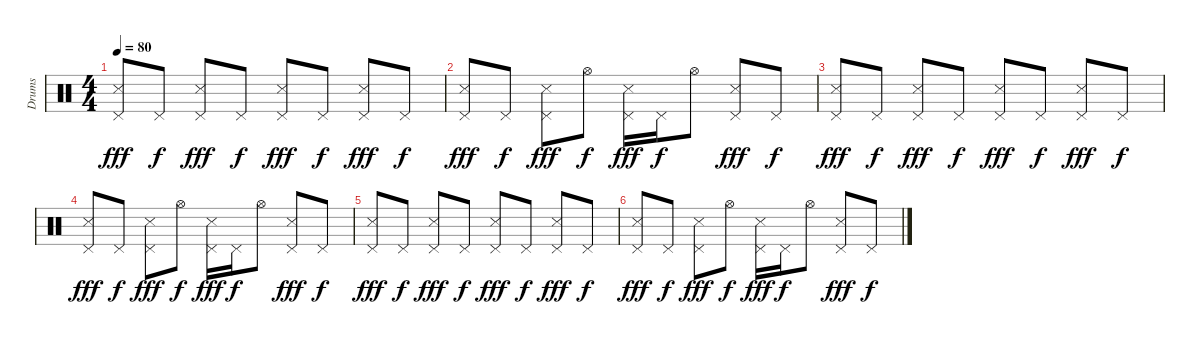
\track ("Drums" "Drums") {instrument percussion}
\staff {score}
\articulation defaults
\ts (4 4)
\tempo 80
\clef neutral
\ks c
("Snare (side stick) 3" "Pedal Hi-Hat (hit)").8{dy fff} "Pedal Hi-Hat (hit)".8{dy f} ("Snare (side stick) 3" "Pedal Hi-Hat (hit)").8{dy fff} "Pedal Hi-Hat (hit)".8{dy f} ("Snare (side stick) 3" "Pedal Hi-Hat (hit)").8{dy fff} "Pedal Hi-Hat (hit)".8{dy f} ("Snare (side stick) 3" "Pedal Hi-Hat (hit)").8{dy fff} "Pedal Hi-Hat (hit)".8{dy f} |
("Snare (side stick) 3" "Pedal Hi-Hat (hit)").8{dy fff} "Pedal Hi-Hat (hit)".8{dy f} ("Snare (side stick) 3" "Pedal Hi-Hat (hit)").8{dy fff} "Hi-Hat (open)".8{dy f} ("Snare (side stick) 3" "Pedal Hi-Hat (hit)").16{dy fff} "Pedal Hi-Hat (hit)".16{dy f} "Hi-Hat (open)".8 ("Snare (side stick) 3" "Pedal Hi-Hat (hit)").8{dy fff} "Pedal Hi-Hat (hit)".8{dy f} |
("Snare (side stick) 3" "Pedal Hi-Hat (hit)").8{dy fff} "Pedal Hi-Hat (hit)".8{dy f} ("Snare (side stick) 3" "Pedal Hi-Hat (hit)").8{dy fff} "Pedal Hi-Hat (hit)".8{dy f} ("Snare (side stick) 3" "Pedal Hi-Hat (hit)").8{dy fff} "Pedal Hi-Hat (hit)".8{dy f} ("Snare (side stick) 3" "Pedal Hi-Hat (hit)").8{dy fff} "Pedal Hi-Hat (hit)".8{dy f} |
("Snare (side stick) 3" "Pedal Hi-Hat (hit)").8{dy fff} "Pedal Hi-Hat (hit)".8{dy f} ("Snare (side stick) 3" "Pedal Hi-Hat (hit)").8{dy fff} "Hi-Hat (open)".8{dy f} ("Snare (side stick) 3" "Pedal Hi-Hat (hit)").16{dy fff} "Pedal Hi-Hat (hit)".16{dy f} "Hi-Hat (open)".8 ("Snare (side stick) 3" "Pedal Hi-Hat (hit)").8{dy fff} "Pedal Hi-Hat (hit)".8{dy f} |
("Snare (side stick) 3" "Pedal Hi-Hat (hit)").8{dy fff} "Pedal Hi-Hat (hit)".8{dy f} ("Snare (side stick) 3" "Pedal Hi-Hat (hit)").8{dy fff} "Pedal Hi-Hat (hit)".8{dy f} ("Snare (side stick) 3" "Pedal Hi-Hat (hit)").8{dy fff} "Pedal Hi-Hat (hit)".8{dy f} ("Snare (side stick) 3" "Pedal Hi-Hat (hit)").8{dy fff} "Pedal Hi-Hat (hit)".8{dy f} |
("Snare (side stick) 3" "Pedal Hi-Hat (hit)").8{dy fff} "Pedal Hi-Hat (hit)".8{dy f} ("Snare (side stick) 3" "Pedal Hi-Hat (hit)").8{dy fff} "Hi-Hat (open)".8{dy f} ("Snare (side stick) 3" "Pedal Hi-Hat (hit)").16{dy fff} "Pedal Hi-Hat (hit)".16{dy f} "Hi-Hat (open)".8 ("Snare (side stick) 3" "Pedal Hi-Hat (hit)").8{dy fff} "Pedal Hi-Hat (hit)".8{dy f}
